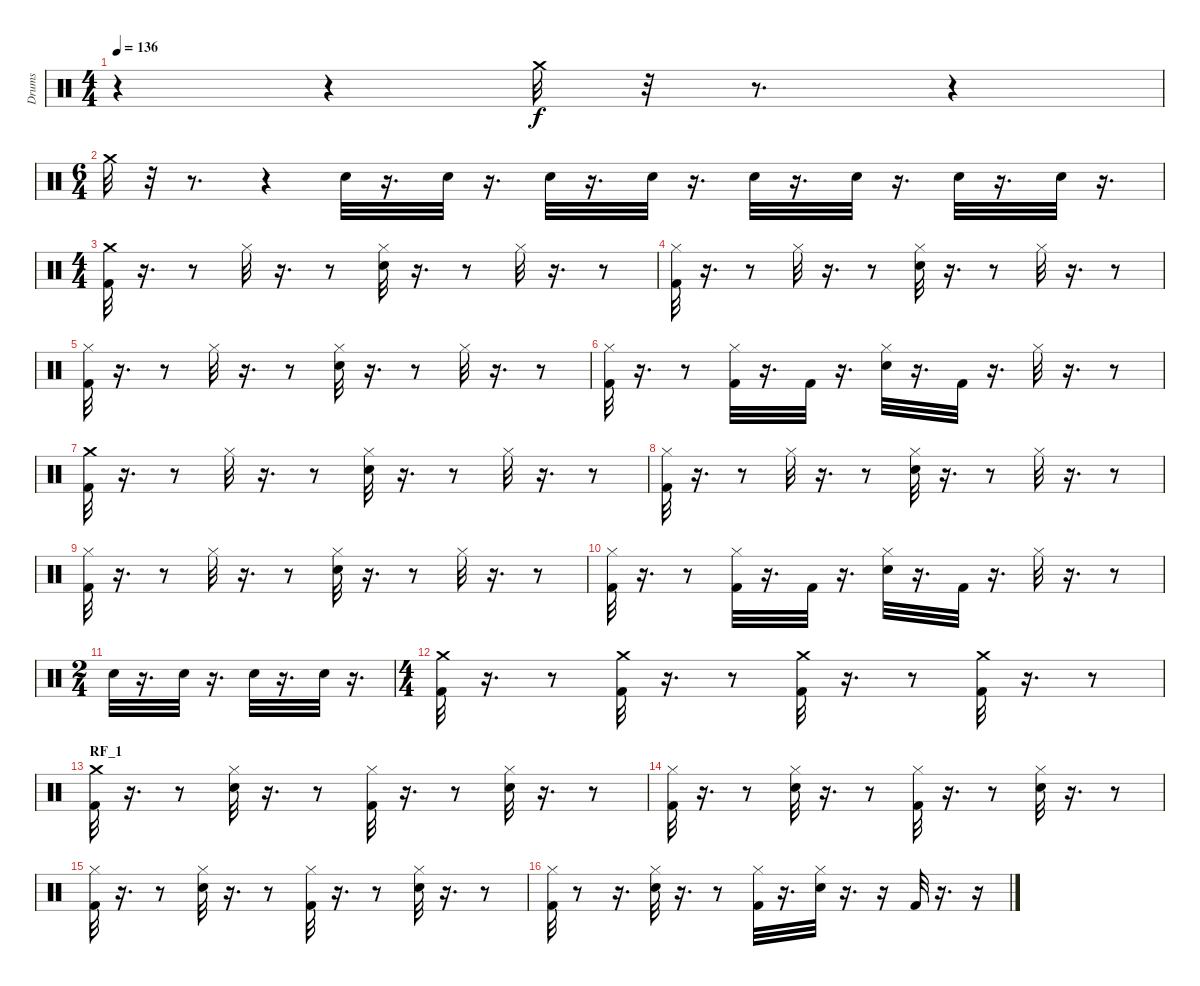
\track ("Drums" "Drums") {instrument percussion}
\staff {score}
\articulation defaults
\ts (4 4)
\tempo 136
\clef neutral
\ks c
r.4{dy f} r.4 "Crash medium (hit)".32 r.32 r.8{d} r.4 |
\ts (6 4)
"Crash medium (hit)".32 r.32 r.8{d} r.4 "Snare (hit) 2".32 r.16{d} "Snare (hit) 2".32 r.16{d} "Snare (hit) 2".32 r.16{d} "Snare (hit) 2".32 r.16{d} "Snare (hit) 2".32 r.16{d} "Snare (hit) 2".32 r.16{d} "Snare (hit) 2".32 r.16{d} "Snare (hit) 2".32 r.16{d} |
\ts (4 4)
("Kick (hit) 2" "Crash medium (hit)").32 r.16{d} r.8 "Hi-Hat (closed)".32 r.16{d} r.8 ("Snare (hit) 2" "Hi-Hat (closed)").32 r.16{d} r.8 "Hi-Hat (closed)".32 r.16{d} r.8 |
("Kick (hit) 2" "Hi-Hat (closed)").32 r.16{d} r.8 "Hi-Hat (closed)".32 r.16{d} r.8 ("Snare (hit) 2" "Hi-Hat (closed)").32 r.16{d} r.8 "Hi-Hat (closed)".32 r.16{d} r.8 |
("Kick (hit) 2" "Hi-Hat (closed)").32 r.16{d} r.8 "Hi-Hat (closed)".32 r.16{d} r.8 ("Snare (hit) 2" "Hi-Hat (closed)").32 r.16{d} r.8 "Hi-Hat (closed)".32 r.16{d} r.8 |
("Kick (hit) 2" "Hi-Hat (closed)").32 r.16{d} r.8 ("Kick (hit) 2" "Hi-Hat (closed)").32 r.16{d} "Kick (hit) 2".32 r.16{d} ("Snare (hit) 2" "Hi-Hat (closed)").32 r.16{d} "Kick (hit) 2".32 r.16{d} "Hi-Hat (closed)".32 r.16{d} r.8 |
("Kick (hit) 2" "Crash medium (hit)").32 r.16{d} r.8 "Hi-Hat (closed)".32 r.16{d} r.8 ("Snare (hit) 2" "Hi-Hat (closed)").32 r.16{d} r.8 "Hi-Hat (closed)".32 r.16{d} r.8 |
("Kick (hit) 2" "Hi-Hat (closed)").32 r.16{d} r.8 "Hi-Hat (closed)".32 r.16{d} r.8 ("Snare (hit) 2" "Hi-Hat (closed)").32 r.16{d} r.8 "Hi-Hat (closed)".32 r.16{d} r.8 |
("Kick (hit) 2" "Hi-Hat (closed)").32 r.16{d} r.8 "Hi-Hat (closed)".32 r.16{d} r.8 ("Snare (hit) 2" "Hi-Hat (closed)").32 r.16{d} r.8 "Hi-Hat (closed)".32 r.16{d} r.8 |
("Kick (hit) 2" "Hi-Hat (closed)").32 r.16{d} r.8 ("Kick (hit) 2" "Hi-Hat (closed)").32 r.16{d} "Kick (hit) 2".32 r.16{d} ("Snare (hit) 2" "Hi-Hat (closed)").32 r.16{d} "Kick (hit) 2".32 r.16{d} "Hi-Hat (closed)".32 r.16{d} r.8 |
\ts (2 4)
"Snare (hit) 2".32 r.16{d} "Snare (hit) 2".32 r.16{d} "Snare (hit) 2".32 r.16{d} "Snare (hit) 2".32 r.16{d} |
\ts (4 4)
("Kick (hit) 2" "Crash medium (hit)").32 r.16{d} r.8 ("Kick (hit) 2" "Crash medium (hit)").32 r.16{d} r.8 ("Kick (hit) 2" "Crash medium (hit)").32 r.16{d} r.8 ("Kick (hit) 2" "Crash medium (hit)").32 r.16{d} r.8 |
\section ("" "RF_1")
("Kick (hit) 2" "Crash medium (hit)").32 r.16{d} r.8 ("Hi-Hat (closed)" "Snare (hit) 2").32 r.16{d} r.8 ("Kick (hit) 2" "Hi-Hat (closed)").32 r.16{d} r.8 ("Hi-Hat (closed)" "Snare (hit) 2").32 r.16{d} r.8 |
("Kick (hit) 2" "Hi-Hat (closed)").32 r.16{d} r.8 ("Hi-Hat (closed)" "Snare (hit) 2").32 r.16{d} r.8 ("Kick (hit) 2" "Hi-Hat (closed)").32 r.16{d} r.8 ("Hi-Hat (closed)" "Snare (hit) 2").32 r.16{d} r.8 |
("Kick (hit) 2" "Hi-Hat (closed)").32 r.16{d} r.8 ("Snare (hit) 2" "Hi-Hat (closed)").32 r.16{d} r.8 ("Kick (hit) 2" "Hi-Hat (closed)").32 r.16{d} r.8 ("Snare (hit) 2" "Hi-Hat (closed)").32 r.16{d} r.8 |
("Kick (hit) 2" "Hi-Hat (closed)").32 r.8 r.16{d} ("Snare (hit) 2" "Hi-Hat (closed)").32 r.16{d} r.8 ("Kick (hit) 2" "Hi-Hat (closed)").32 r.16{d} ("Snare (hit) 2" "Hi-Hat (closed)").32 r.16{d} r.16 "Kick (hit) 2".32 r.16{d} r.16
